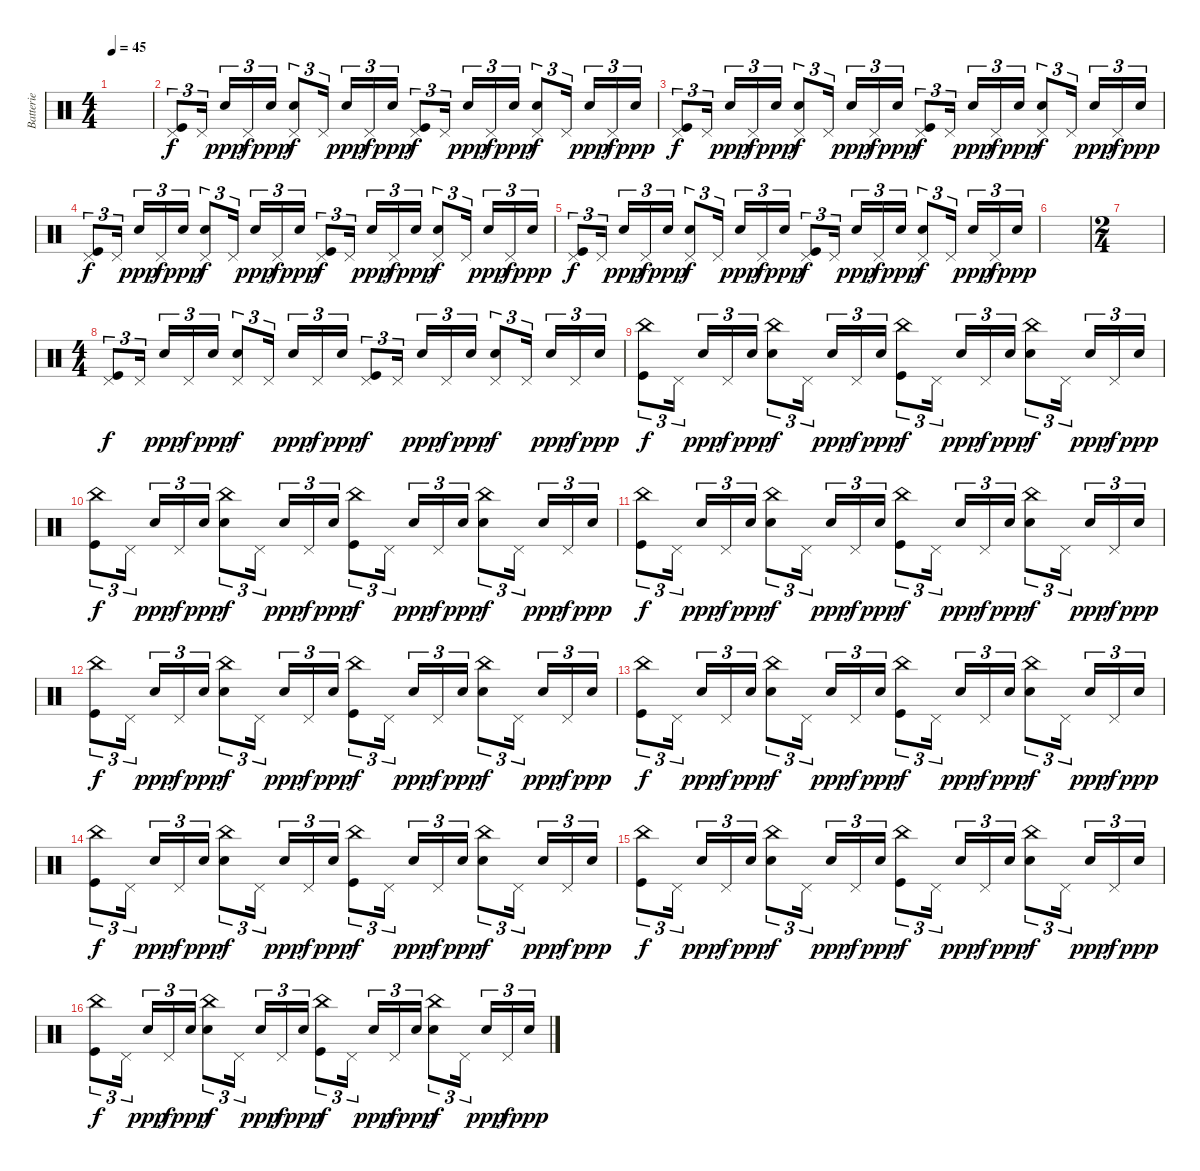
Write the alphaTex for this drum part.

\track ("Batterie" "Batterie") {instrument percussion}
\staff {score}
\articulation defaults
\ts (4 4)
\tempo 45
\clef neutral
\ks c
|
("Pedal Hi-Hat (hit)" "Kick (hit)").8{tu (3 2) dy f} "Pedal Hi-Hat (hit)".16{tu (3 2)} "Electric Snare (hit)".16{tu (3 2) dy ppp} "Pedal Hi-Hat (hit)".16{tu (3 2) dy f} "Electric Snare (hit)".16{tu (3 2) dy ppp} ("Pedal Hi-Hat (hit)" "Electric Snare (hit)").8{tu (3 2) dy f} "Pedal Hi-Hat (hit)".16{tu (3 2)} "Electric Snare (hit)".16{tu (3 2) dy ppp} "Pedal Hi-Hat (hit)".16{tu (3 2) dy f} "Electric Snare (hit)".16{tu (3 2) dy ppp} ("Pedal Hi-Hat (hit)" "Kick (hit)").8{tu (3 2) dy f} "Pedal Hi-Hat (hit)".16{tu (3 2)} "Electric Snare (hit)".16{tu (3 2) dy ppp} "Pedal Hi-Hat (hit)".16{tu (3 2) dy f} "Electric Snare (hit)".16{tu (3 2) dy ppp} ("Pedal Hi-Hat (hit)" "Electric Snare (hit)").8{tu (3 2) dy f} "Pedal Hi-Hat (hit)".16{tu (3 2)} "Electric Snare (hit)".16{tu (3 2) dy ppp} "Pedal Hi-Hat (hit)".16{tu (3 2) dy f} "Electric Snare (hit)".16{tu (3 2) dy ppp} |
("Pedal Hi-Hat (hit)" "Kick (hit)").8{tu (3 2) dy f} "Pedal Hi-Hat (hit)".16{tu (3 2)} "Electric Snare (hit)".16{tu (3 2) dy ppp} "Pedal Hi-Hat (hit)".16{tu (3 2) dy f} "Electric Snare (hit)".16{tu (3 2) dy ppp} ("Pedal Hi-Hat (hit)" "Electric Snare (hit)").8{tu (3 2) dy f} "Pedal Hi-Hat (hit)".16{tu (3 2)} "Electric Snare (hit)".16{tu (3 2) dy ppp} "Pedal Hi-Hat (hit)".16{tu (3 2) dy f} "Electric Snare (hit)".16{tu (3 2) dy ppp} ("Pedal Hi-Hat (hit)" "Kick (hit)").8{tu (3 2) dy f} "Pedal Hi-Hat (hit)".16{tu (3 2)} "Electric Snare (hit)".16{tu (3 2) dy ppp} "Pedal Hi-Hat (hit)".16{tu (3 2) dy f} "Electric Snare (hit)".16{tu (3 2) dy ppp} ("Pedal Hi-Hat (hit)" "Electric Snare (hit)").8{tu (3 2) dy f} "Pedal Hi-Hat (hit)".16{tu (3 2)} "Electric Snare (hit)".16{tu (3 2) dy ppp} "Pedal Hi-Hat (hit)".16{tu (3 2) dy f} "Electric Snare (hit)".16{tu (3 2) dy ppp} |
("Pedal Hi-Hat (hit)" "Kick (hit)").8{tu (3 2) dy f} "Pedal Hi-Hat (hit)".16{tu (3 2)} "Electric Snare (hit)".16{tu (3 2) dy ppp} "Pedal Hi-Hat (hit)".16{tu (3 2) dy f} "Electric Snare (hit)".16{tu (3 2) dy ppp} ("Pedal Hi-Hat (hit)" "Electric Snare (hit)").8{tu (3 2) dy f} "Pedal Hi-Hat (hit)".16{tu (3 2)} "Electric Snare (hit)".16{tu (3 2) dy ppp} "Pedal Hi-Hat (hit)".16{tu (3 2) dy f} "Electric Snare (hit)".16{tu (3 2) dy ppp} ("Pedal Hi-Hat (hit)" "Kick (hit)").8{tu (3 2) dy f} "Pedal Hi-Hat (hit)".16{tu (3 2)} "Electric Snare (hit)".16{tu (3 2) dy ppp} "Pedal Hi-Hat (hit)".16{tu (3 2) dy f} "Electric Snare (hit)".16{tu (3 2) dy ppp} ("Pedal Hi-Hat (hit)" "Electric Snare (hit)").8{tu (3 2) dy f} "Pedal Hi-Hat (hit)".16{tu (3 2)} "Electric Snare (hit)".16{tu (3 2) dy ppp} "Pedal Hi-Hat (hit)".16{tu (3 2) dy f} "Electric Snare (hit)".16{tu (3 2) dy ppp} |
("Pedal Hi-Hat (hit)" "Kick (hit)").8{tu (3 2) dy f} "Pedal Hi-Hat (hit)".16{tu (3 2)} "Electric Snare (hit)".16{tu (3 2) dy ppp} "Pedal Hi-Hat (hit)".16{tu (3 2) dy f} "Electric Snare (hit)".16{tu (3 2) dy ppp} ("Pedal Hi-Hat (hit)" "Electric Snare (hit)").8{tu (3 2) dy f} "Pedal Hi-Hat (hit)".16{tu (3 2)} "Electric Snare (hit)".16{tu (3 2) dy ppp} "Pedal Hi-Hat (hit)".16{tu (3 2) dy f} "Electric Snare (hit)".16{tu (3 2) dy ppp} ("Pedal Hi-Hat (hit)" "Kick (hit)").8{tu (3 2) dy f} "Pedal Hi-Hat (hit)".16{tu (3 2)} "Electric Snare (hit)".16{tu (3 2) dy ppp} "Pedal Hi-Hat (hit)".16{tu (3 2) dy f} "Electric Snare (hit)".16{tu (3 2) dy ppp} ("Pedal Hi-Hat (hit)" "Electric Snare (hit)").8{tu (3 2) dy f} "Pedal Hi-Hat (hit)".16{tu (3 2)} "Electric Snare (hit)".16{tu (3 2) dy ppp} "Pedal Hi-Hat (hit)".16{tu (3 2) dy f} "Electric Snare (hit)".16{tu (3 2) dy ppp} |
|
\ts (2 4)
|
\ts (4 4)
("Pedal Hi-Hat (hit)" "Kick (hit)").8{tu (3 2) dy f} "Pedal Hi-Hat (hit)".16{tu (3 2)} "Electric Snare (hit)".16{tu (3 2) dy ppp} "Pedal Hi-Hat (hit)".16{tu (3 2) dy f} "Electric Snare (hit)".16{tu (3 2) dy ppp} ("Pedal Hi-Hat (hit)" "Electric Snare (hit)").8{tu (3 2) dy f} "Pedal Hi-Hat (hit)".16{tu (3 2)} "Electric Snare (hit)".16{tu (3 2) dy ppp} "Pedal Hi-Hat (hit)".16{tu (3 2) dy f} "Electric Snare (hit)".16{tu (3 2) dy ppp} ("Pedal Hi-Hat (hit)" "Kick (hit)").8{tu (3 2) dy f} "Pedal Hi-Hat (hit)".16{tu (3 2)} "Electric Snare (hit)".16{tu (3 2) dy ppp} "Pedal Hi-Hat (hit)".16{tu (3 2) dy f} "Electric Snare (hit)".16{tu (3 2) dy ppp} ("Pedal Hi-Hat (hit)" "Electric Snare (hit)").8{tu (3 2) dy f} "Pedal Hi-Hat (hit)".16{tu (3 2)} "Electric Snare (hit)".16{tu (3 2) dy ppp} "Pedal Hi-Hat (hit)".16{tu (3 2) dy f} "Electric Snare (hit)".16{tu (3 2) dy ppp} |
("China (hit)" "Kick (hit)").8{tu (3 2) dy f} "Pedal Hi-Hat (hit)".16{tu (3 2)} "Electric Snare (hit)".16{tu (3 2) dy ppp} "Pedal Hi-Hat (hit)".16{tu (3 2) dy f} "Electric Snare (hit)".16{tu (3 2) dy ppp} ("China (hit)" "Electric Snare (hit)").8{tu (3 2) dy f} "Pedal Hi-Hat (hit)".16{tu (3 2)} "Electric Snare (hit)".16{tu (3 2) dy ppp} "Pedal Hi-Hat (hit)".16{tu (3 2) dy f} "Electric Snare (hit)".16{tu (3 2) dy ppp} ("China (hit)" "Kick (hit)").8{tu (3 2) dy f} "Pedal Hi-Hat (hit)".16{tu (3 2)} "Electric Snare (hit)".16{tu (3 2) dy ppp} "Pedal Hi-Hat (hit)".16{tu (3 2) dy f} "Electric Snare (hit)".16{tu (3 2) dy ppp} ("China (hit)" "Electric Snare (hit)").8{tu (3 2) dy f} "Pedal Hi-Hat (hit)".16{tu (3 2)} "Electric Snare (hit)".16{tu (3 2) dy ppp} "Pedal Hi-Hat (hit)".16{tu (3 2) dy f} "Electric Snare (hit)".16{tu (3 2) dy ppp} |
("China (hit)" "Kick (hit)").8{tu (3 2) dy f} "Pedal Hi-Hat (hit)".16{tu (3 2)} "Electric Snare (hit)".16{tu (3 2) dy ppp} "Pedal Hi-Hat (hit)".16{tu (3 2) dy f} "Electric Snare (hit)".16{tu (3 2) dy ppp} ("China (hit)" "Electric Snare (hit)").8{tu (3 2) dy f} "Pedal Hi-Hat (hit)".16{tu (3 2)} "Electric Snare (hit)".16{tu (3 2) dy ppp} "Pedal Hi-Hat (hit)".16{tu (3 2) dy f} "Electric Snare (hit)".16{tu (3 2) dy ppp} ("China (hit)" "Kick (hit)").8{tu (3 2) dy f} "Pedal Hi-Hat (hit)".16{tu (3 2)} "Electric Snare (hit)".16{tu (3 2) dy ppp} "Pedal Hi-Hat (hit)".16{tu (3 2) dy f} "Electric Snare (hit)".16{tu (3 2) dy ppp} ("China (hit)" "Electric Snare (hit)").8{tu (3 2) dy f} "Pedal Hi-Hat (hit)".16{tu (3 2)} "Electric Snare (hit)".16{tu (3 2) dy ppp} "Pedal Hi-Hat (hit)".16{tu (3 2) dy f} "Electric Snare (hit)".16{tu (3 2) dy ppp} |
("China (hit)" "Kick (hit)").8{tu (3 2) dy f} "Pedal Hi-Hat (hit)".16{tu (3 2)} "Electric Snare (hit)".16{tu (3 2) dy ppp} "Pedal Hi-Hat (hit)".16{tu (3 2) dy f} "Electric Snare (hit)".16{tu (3 2) dy ppp} ("China (hit)" "Electric Snare (hit)").8{tu (3 2) dy f} "Pedal Hi-Hat (hit)".16{tu (3 2)} "Electric Snare (hit)".16{tu (3 2) dy ppp} "Pedal Hi-Hat (hit)".16{tu (3 2) dy f} "Electric Snare (hit)".16{tu (3 2) dy ppp} ("China (hit)" "Kick (hit)").8{tu (3 2) dy f} "Pedal Hi-Hat (hit)".16{tu (3 2)} "Electric Snare (hit)".16{tu (3 2) dy ppp} "Pedal Hi-Hat (hit)".16{tu (3 2) dy f} "Electric Snare (hit)".16{tu (3 2) dy ppp} ("China (hit)" "Electric Snare (hit)").8{tu (3 2) dy f} "Pedal Hi-Hat (hit)".16{tu (3 2)} "Electric Snare (hit)".16{tu (3 2) dy ppp} "Pedal Hi-Hat (hit)".16{tu (3 2) dy f} "Electric Snare (hit)".16{tu (3 2) dy ppp} |
("China (hit)" "Kick (hit)").8{tu (3 2) dy f} "Pedal Hi-Hat (hit)".16{tu (3 2)} "Electric Snare (hit)".16{tu (3 2) dy ppp} "Pedal Hi-Hat (hit)".16{tu (3 2) dy f} "Electric Snare (hit)".16{tu (3 2) dy ppp} ("China (hit)" "Electric Snare (hit)").8{tu (3 2) dy f} "Pedal Hi-Hat (hit)".16{tu (3 2)} "Electric Snare (hit)".16{tu (3 2) dy ppp} "Pedal Hi-Hat (hit)".16{tu (3 2) dy f} "Electric Snare (hit)".16{tu (3 2) dy ppp} ("China (hit)" "Kick (hit)").8{tu (3 2) dy f} "Pedal Hi-Hat (hit)".16{tu (3 2)} "Electric Snare (hit)".16{tu (3 2) dy ppp} "Pedal Hi-Hat (hit)".16{tu (3 2) dy f} "Electric Snare (hit)".16{tu (3 2) dy ppp} ("China (hit)" "Electric Snare (hit)").8{tu (3 2) dy f} "Pedal Hi-Hat (hit)".16{tu (3 2)} "Electric Snare (hit)".16{tu (3 2) dy ppp} "Pedal Hi-Hat (hit)".16{tu (3 2) dy f} "Electric Snare (hit)".16{tu (3 2) dy ppp} |
("China (hit)" "Kick (hit)").8{tu (3 2) dy f} "Pedal Hi-Hat (hit)".16{tu (3 2)} "Electric Snare (hit)".16{tu (3 2) dy ppp} "Pedal Hi-Hat (hit)".16{tu (3 2) dy f} "Electric Snare (hit)".16{tu (3 2) dy ppp} ("China (hit)" "Electric Snare (hit)").8{tu (3 2) dy f} "Pedal Hi-Hat (hit)".16{tu (3 2)} "Electric Snare (hit)".16{tu (3 2) dy ppp} "Pedal Hi-Hat (hit)".16{tu (3 2) dy f} "Electric Snare (hit)".16{tu (3 2) dy ppp} ("China (hit)" "Kick (hit)").8{tu (3 2) dy f} "Pedal Hi-Hat (hit)".16{tu (3 2)} "Electric Snare (hit)".16{tu (3 2) dy ppp} "Pedal Hi-Hat (hit)".16{tu (3 2) dy f} "Electric Snare (hit)".16{tu (3 2) dy ppp} ("China (hit)" "Electric Snare (hit)").8{tu (3 2) dy f} "Pedal Hi-Hat (hit)".16{tu (3 2)} "Electric Snare (hit)".16{tu (3 2) dy ppp} "Pedal Hi-Hat (hit)".16{tu (3 2) dy f} "Electric Snare (hit)".16{tu (3 2) dy ppp} |
("China (hit)" "Kick (hit)").8{tu (3 2) dy f} "Pedal Hi-Hat (hit)".16{tu (3 2)} "Electric Snare (hit)".16{tu (3 2) dy ppp} "Pedal Hi-Hat (hit)".16{tu (3 2) dy f} "Electric Snare (hit)".16{tu (3 2) dy ppp} ("China (hit)" "Electric Snare (hit)").8{tu (3 2) dy f} "Pedal Hi-Hat (hit)".16{tu (3 2)} "Electric Snare (hit)".16{tu (3 2) dy ppp} "Pedal Hi-Hat (hit)".16{tu (3 2) dy f} "Electric Snare (hit)".16{tu (3 2) dy ppp} ("China (hit)" "Kick (hit)").8{tu (3 2) dy f} "Pedal Hi-Hat (hit)".16{tu (3 2)} "Electric Snare (hit)".16{tu (3 2) dy ppp} "Pedal Hi-Hat (hit)".16{tu (3 2) dy f} "Electric Snare (hit)".16{tu (3 2) dy ppp} ("China (hit)" "Electric Snare (hit)").8{tu (3 2) dy f} "Pedal Hi-Hat (hit)".16{tu (3 2)} "Electric Snare (hit)".16{tu (3 2) dy ppp} "Pedal Hi-Hat (hit)".16{tu (3 2) dy f} "Electric Snare (hit)".16{tu (3 2) dy ppp} |
("China (hit)" "Kick (hit)").8{tu (3 2) dy f} "Pedal Hi-Hat (hit)".16{tu (3 2)} "Electric Snare (hit)".16{tu (3 2) dy ppp} "Pedal Hi-Hat (hit)".16{tu (3 2) dy f} "Electric Snare (hit)".16{tu (3 2) dy ppp} ("China (hit)" "Electric Snare (hit)").8{tu (3 2) dy f} "Pedal Hi-Hat (hit)".16{tu (3 2)} "Electric Snare (hit)".16{tu (3 2) dy ppp} "Pedal Hi-Hat (hit)".16{tu (3 2) dy f} "Electric Snare (hit)".16{tu (3 2) dy ppp} ("China (hit)" "Kick (hit)").8{tu (3 2) dy f} "Pedal Hi-Hat (hit)".16{tu (3 2)} "Electric Snare (hit)".16{tu (3 2) dy ppp} "Pedal Hi-Hat (hit)".16{tu (3 2) dy f} "Electric Snare (hit)".16{tu (3 2) dy ppp} ("China (hit)" "Electric Snare (hit)").8{tu (3 2) dy f} "Pedal Hi-Hat (hit)".16{tu (3 2)} "Electric Snare (hit)".16{tu (3 2) dy ppp} "Pedal Hi-Hat (hit)".16{tu (3 2) dy f} "Electric Snare (hit)".16{tu (3 2) dy ppp} |
("China (hit)" "Kick (hit)").8{tu (3 2) dy f} "Pedal Hi-Hat (hit)".16{tu (3 2)} "Electric Snare (hit)".16{tu (3 2) dy ppp} "Pedal Hi-Hat (hit)".16{tu (3 2) dy f} "Electric Snare (hit)".16{tu (3 2) dy ppp} ("China (hit)" "Electric Snare (hit)").8{tu (3 2) dy f} "Pedal Hi-Hat (hit)".16{tu (3 2)} "Electric Snare (hit)".16{tu (3 2) dy ppp} "Pedal Hi-Hat (hit)".16{tu (3 2) dy f} "Electric Snare (hit)".16{tu (3 2) dy ppp} ("China (hit)" "Kick (hit)").8{tu (3 2) dy f} "Pedal Hi-Hat (hit)".16{tu (3 2)} "Electric Snare (hit)".16{tu (3 2) dy ppp} "Pedal Hi-Hat (hit)".16{tu (3 2) dy f} "Electric Snare (hit)".16{tu (3 2) dy ppp} ("China (hit)" "Electric Snare (hit)").8{tu (3 2) dy f} "Pedal Hi-Hat (hit)".16{tu (3 2)} "Electric Snare (hit)".16{tu (3 2) dy ppp} "Pedal Hi-Hat (hit)".16{tu (3 2) dy f} "Electric Snare (hit)".16{tu (3 2) dy ppp}
